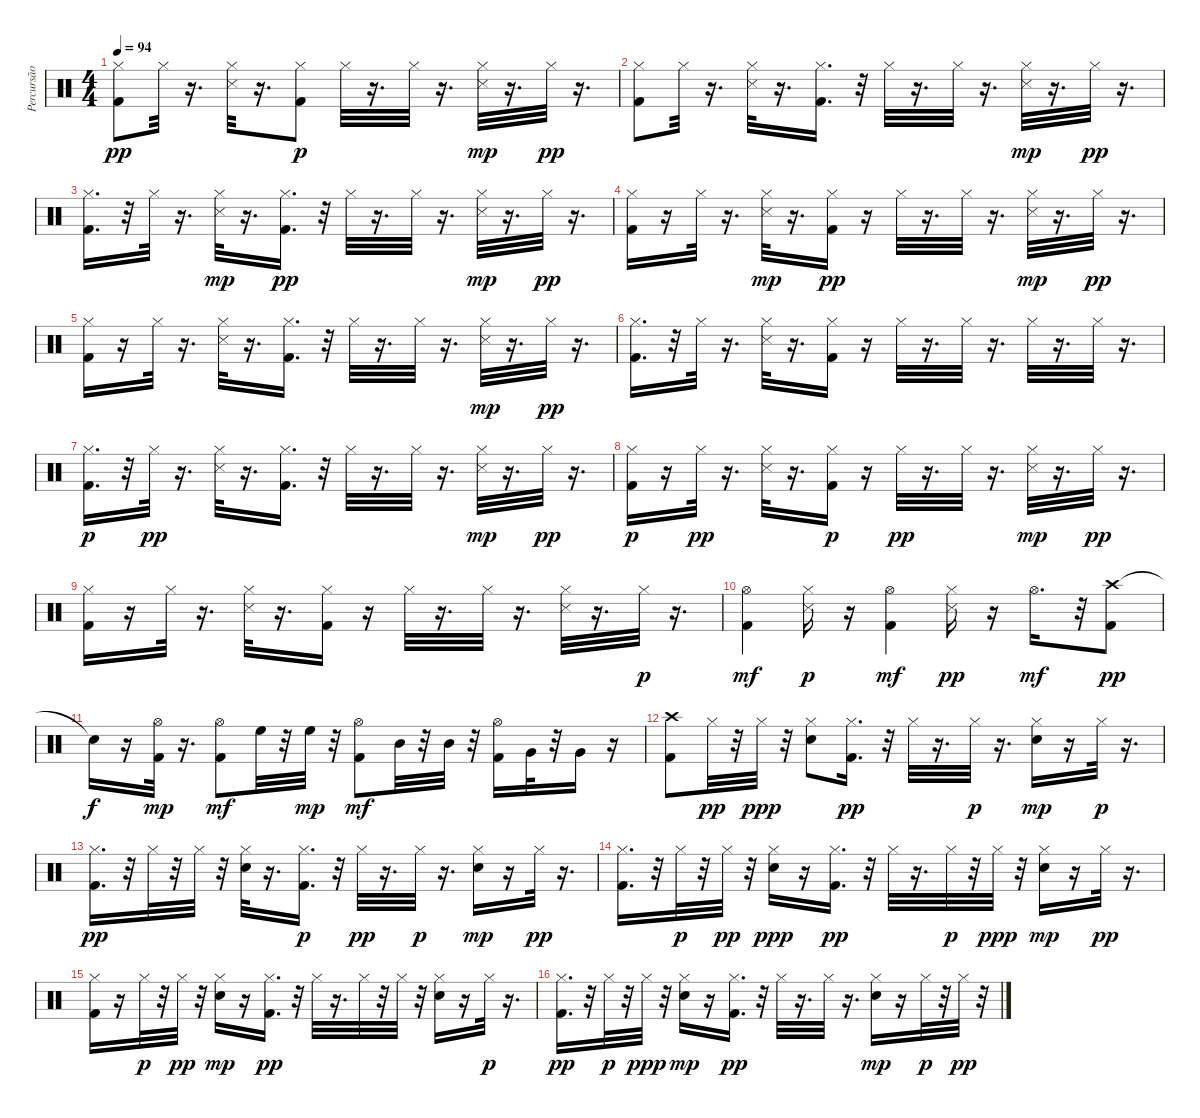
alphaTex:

\track ("Percursão" "Percursão") {instrument percussion}
\staff {score}
\articulation defaults
\ts (4 4)
\tempo 94
\clef neutral
\ks c
("Hi-Hat (closed)" "Kick (hit) 2").8{dy pp} "Hi-Hat (closed)".32 r.16{d} ("Snare (side stick) 3" "Hi-Hat (closed)").32 r.16{d} ("Kick (hit) 2" "Hi-Hat (closed)").8{dy p} "Hi-Hat (closed)".32 r.16{d} "Hi-Hat (closed)".32 r.16{d} ("Hi-Hat (closed)" "Snare (side stick) 3").32{dy mp} r.16{d} "Hi-Hat (closed)".32{dy pp} r.16{d} |
("Kick (hit) 2" "Hi-Hat (closed)").8 "Hi-Hat (closed)".32 r.16{d} ("Snare (side stick) 3" "Hi-Hat (closed)").32 r.16{d} ("Hi-Hat (closed)" "Kick (hit) 2").16{d} r.32 "Hi-Hat (closed)".32 r.16{d} "Hi-Hat (closed)".32 r.16{d} ("Hi-Hat (closed)" "Snare (side stick) 3").32{dy mp} r.16{d} "Hi-Hat (closed)".32{dy pp} r.16{d} |
("Hi-Hat (closed)" "Kick (hit) 2").16{d} r.32 "Hi-Hat (closed)".32 r.16{d} ("Hi-Hat (closed)" "Snare (side stick) 3").32{dy mp} r.16{d} ("Kick (hit) 2" "Hi-Hat (closed)").16{d dy pp} r.32 "Hi-Hat (closed)".32 r.16{d} "Hi-Hat (closed)".32 r.16{d} ("Hi-Hat (closed)" "Snare (side stick) 3").32{dy mp} r.16{d} "Hi-Hat (closed)".32{dy pp} r.16{d} |
("Hi-Hat (closed)" "Kick (hit) 2").16 r.16 "Hi-Hat (closed)".32 r.16{d} ("Hi-Hat (closed)" "Snare (side stick) 3").32{dy mp} r.16{d} ("Kick (hit) 2" "Hi-Hat (closed)").16{dy pp} r.16 "Hi-Hat (closed)".32 r.16{d} "Hi-Hat (closed)".32 r.16{d} ("Hi-Hat (closed)" "Snare (side stick) 3").32{dy mp} r.16{d} "Hi-Hat (closed)".32{dy pp} r.16{d} |
("Kick (hit) 2" "Hi-Hat (closed)").16 r.16 "Hi-Hat (closed)".32 r.16{d} ("Snare (side stick) 3" "Hi-Hat (closed)").32 r.16{d} ("Kick (hit) 2" "Hi-Hat (closed)").16{d} r.32 "Hi-Hat (closed)".32 r.16{d} "Hi-Hat (closed)".32 r.16{d} ("Hi-Hat (closed)" "Snare (side stick) 3").32{dy mp} r.16{d} "Hi-Hat (closed)".32{dy pp} r.16{d} |
("Kick (hit) 2" "Hi-Hat (closed)").16{d} r.32 "Hi-Hat (closed)".32 r.16{d} ("Snare (side stick) 3" "Hi-Hat (closed)").32 r.16{d} ("Kick (hit) 2" "Hi-Hat (closed)").16 r.16 "Hi-Hat (closed)".32 r.16{d} "Hi-Hat (closed)".32 r.16{d} "Hi-Hat (closed)".32 r.16{d} "Hi-Hat (closed)".32 r.16{d} |
("Kick (hit) 2" "Hi-Hat (closed)").16{d dy p} r.32 "Hi-Hat (closed)".32{dy pp} r.16{d} ("Snare (side stick) 3" "Hi-Hat (closed)").32 r.16{d} ("Kick (hit) 2" "Hi-Hat (closed)").16{d} r.32 "Hi-Hat (closed)".32 r.16{d} "Hi-Hat (closed)".32 r.16{d} ("Hi-Hat (closed)" "Snare (side stick) 3").32{dy mp} r.16{d} "Hi-Hat (closed)".32{dy pp} r.16{d} |
("Kick (hit) 2" "Hi-Hat (closed)").16{dy p} r.16 "Hi-Hat (closed)".32{dy pp} r.16{d} ("Snare (side stick) 3" "Hi-Hat (closed)").32 r.16{d} ("Kick (hit) 2" "Hi-Hat (closed)").16{dy p} r.16 "Hi-Hat (closed)".32{dy pp} r.16{d} "Hi-Hat (closed)".32 r.16{d} ("Hi-Hat (closed)" "Snare (side stick) 3").32{dy mp} r.16{d} "Hi-Hat (closed)".32{dy pp} r.16{d} |
("Kick (hit) 2" "Hi-Hat (closed)").16 r.16 "Hi-Hat (closed)".32 r.16{d} ("Snare (side stick) 3" "Hi-Hat (closed)").32 r.16{d} ("Hi-Hat (closed)" "Kick (hit) 2").16 r.16 "Hi-Hat (closed)".32 r.16{d} "Hi-Hat (closed)".32 r.16{d} ("Snare (side stick) 3" "Hi-Hat (closed)").32 r.16{d} "Hi-Hat (closed)".32{dy p} r.16{d} |
("Kick (hit) 2" "Hi-Hat (open)").4{dy mf} ("Snare (side stick) 3" "Hi-Hat (closed)").16{dy p} r.16 ("Kick (hit) 2" "Hi-Hat (open)").4{dy mf} ("Snare (side stick) 3" "Hi-Hat (closed)").16{dy pp} r.16 "Hi-Hat (open)".16{d dy mf} r.32 ("Crash high (hit)" "Kick (hit) 2").8{dy pp} |
"Snare (hit)"{t}.16{dy f} r.16 ("Kick (hit) 2" "Hi-Hat (open)").32{dy mp} r.16{d} ("Kick (hit) 2" "Hi-Hat (open)").8{dy mf} "High Floor Tom (hit)".32 r.32 "High Floor Tom (hit)".32{dy mp} r.32 ("Kick (hit) 2" "Hi-Hat (open)").8{dy mf} "Mid Tom (hit)".32 r.32 "Mid Tom (hit)".32 r.32 ("Kick (hit) 2" "Hi-Hat (open)").16 "Very Low Tom (hit)".32 r.32 "Very Low Tom (hit)".16 r.16 |
("Kick (hit) 2" "Crash high (hit)").8 "Hi-Hat (closed)".32{dy pp} r.32 "Hi-Hat (closed)".32{dy ppp} r.32 ("Snare (hit) 2" "Hi-Hat (closed)").8 ("Kick (hit) 2" "Hi-Hat (closed)").16{d dy pp} r.32 "Hi-Hat (closed)".32 r.16{d} "Hi-Hat (closed)".32{dy p} r.16{d} ("Hi-Hat (closed)" "Snare (hit) 2").16{dy mp} r.16 "Hi-Hat (closed)".32{dy p} r.16{d} |
("Kick (hit) 2" "Hi-Hat (closed)").16{d dy pp} r.32 "Hi-Hat (closed)".32 r.32 "Hi-Hat (closed)".32 r.32 ("Snare (hit) 2" "Hi-Hat (closed)").32 r.16{d} ("Kick (hit) 2" "Hi-Hat (closed)").16{d dy p} r.32 "Hi-Hat (closed)".32{dy pp} r.16{d} "Hi-Hat (closed)".32{dy p} r.16{d} ("Hi-Hat (closed)" "Snare (hit) 2").16{dy mp} r.16 "Hi-Hat (closed)".32{dy pp} r.16{d} |
("Kick (hit) 2" "Hi-Hat (closed)").16{d} r.32 "Hi-Hat (closed)".32{dy p} r.32 "Hi-Hat (closed)".32{dy pp} r.32 ("Snare (hit) 2" "Hi-Hat (closed)").16{dy ppp} r.16 ("Kick (hit) 2" "Hi-Hat (closed)").16{d dy pp} r.32 "Hi-Hat (closed)".32 r.16{d} "Hi-Hat (closed)".32{dy p} r.32 "Hi-Hat (closed)".32{dy ppp} r.32 ("Hi-Hat (closed)" "Snare (hit) 2").16{dy mp} r.16 "Hi-Hat (closed)".32{dy pp} r.16{d} |
("Kick (hit) 2" "Hi-Hat (closed)").16 r.16 "Hi-Hat (closed)".32{dy p} r.32 "Hi-Hat (closed)".32{dy pp} r.32 ("Hi-Hat (closed)" "Snare (hit) 2").16{dy mp} r.16 ("Hi-Hat (closed)" "Kick (hit) 2").16{d dy pp} r.32 "Hi-Hat (closed)".32 r.16{d} "Hi-Hat (closed)".32 r.32 "Hi-Hat (closed)".32 r.32 ("Snare (hit) 2" "Hi-Hat (closed)").16 r.16 "Hi-Hat (closed)".32{dy p} r.16{d} |
("Kick (hit) 2" "Hi-Hat (closed)").16{d dy pp} r.32 "Hi-Hat (closed)".32{dy p} r.32 "Hi-Hat (closed)".32{dy ppp} r.32 ("Hi-Hat (closed)" "Snare (hit) 2").16{dy mp} r.16 ("Hi-Hat (closed)" "Kick (hit) 2").16{d dy pp} r.32 "Hi-Hat (closed)".32 r.16{d} "Hi-Hat (closed)".32 r.16{d} ("Hi-Hat (closed)" "Snare (hit) 2").16{dy mp} r.16 "Hi-Hat (closed)".32{dy p} r.32 "Hi-Hat (closed)".32{dy pp} r.32
